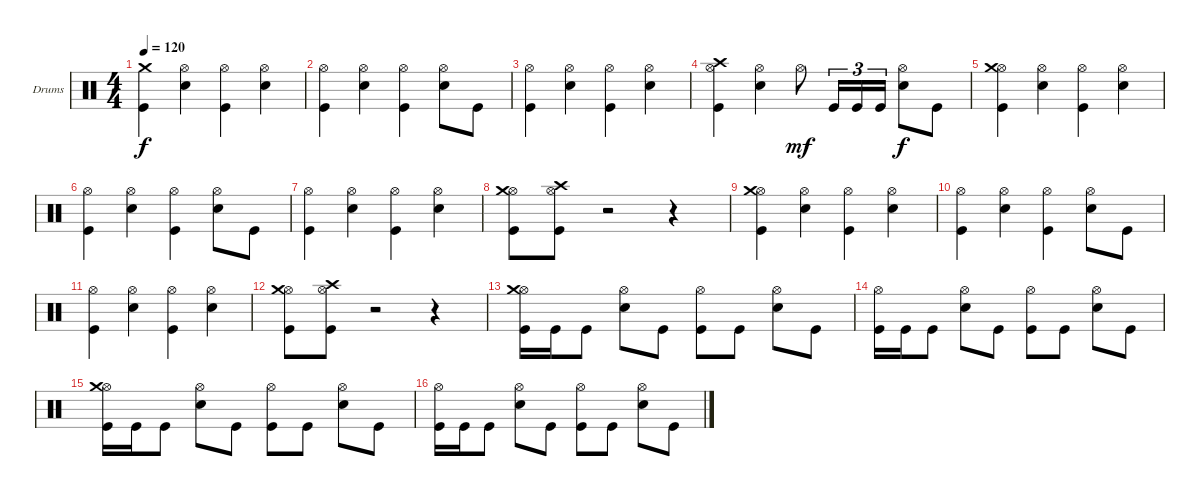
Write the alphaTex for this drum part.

\defaultSystemsLayout 4
\bracketExtendMode groupsimilarinstruments
\firstSystemTrackNameOrientation horizontal
\otherSystemsTrackNameOrientation horizontal
\track ("Drumkit" "Drums") {instrument percussion}
\staff {score}
\articulation defaults
\ts (4 4)
\tempo 120
\clef neutral
\scale
0.474178
\ks c
("Kick (hit)" "Crash medium (hit)").4{dy f} ("Snare (hit) 2" "Hi-Hat (open)").4 ("Kick (hit)" "Hi-Hat (open)").4 ("Snare (hit) 2" "Hi-Hat (open)").4 |
\scale
0.262911 ("Kick (hit)" "Hi-Hat (open)").4 ("Snare (hit) 2" "Hi-Hat (open)").4 ("Kick (hit)" "Hi-Hat (open)").4 ("Snare (hit) 2" "Hi-Hat (open)").8 "Kick (hit)".8 |
\scale
0.262911 ("Kick (hit)" "Hi-Hat (open)").4 ("Snare (hit) 2" "Hi-Hat (open)").4 ("Kick (hit)" "Hi-Hat (open)").4 ("Snare (hit) 2" "Hi-Hat (open)").4 |
\scale
0.333333 ("Kick (hit)" "Hi-Hat (open)" "Crash high (hit)").4 ("Snare (hit) 2" "Hi-Hat (open)").4 "Hi-Hat (open)".8{dy mf} "Kick (hit)".16{tu (3 2)} "Kick (hit)".16{tu (3 2)} "Kick (hit)".16{tu (3 2)} ("Snare (hit) 2" "Hi-Hat (open)").8{dy f} "Kick (hit)".8 |
\scale
0.333333 ("Kick (hit)" "Hi-Hat (open)" "Crash medium (hit)").4 ("Snare (hit) 2" "Hi-Hat (open)").4 ("Kick (hit)" "Hi-Hat (open)").4 ("Snare (hit) 2" "Hi-Hat (open)").4 |
\scale
0.333333 ("Kick (hit)" "Hi-Hat (open)").4 ("Snare (hit) 2" "Hi-Hat (open)").4 ("Kick (hit)" "Hi-Hat (open)").4 ("Snare (hit) 2" "Hi-Hat (open)").8 "Kick (hit)".8 |
\scale
0.333333 ("Kick (hit)" "Hi-Hat (open)").4 ("Snare (hit) 2" "Hi-Hat (open)").4 ("Kick (hit)" "Hi-Hat (open)").4 ("Snare (hit) 2" "Hi-Hat (open)").4 |
\scale
0.333333 ("Kick (hit)" "Hi-Hat (open)" "Crash medium (hit)").8 ("Kick (hit)" "Hi-Hat (open)" "Crash high (hit)").8 r.2 r.4 |
\scale
0.333333 ("Kick (hit)" "Hi-Hat (open)" "Crash medium (hit)").4 ("Snare (hit) 2" "Hi-Hat (open)").4 ("Kick (hit)" "Hi-Hat (open)").4 ("Snare (hit) 2" "Hi-Hat (open)").4 |
("Kick (hit)" "Hi-Hat (open)").4 ("Snare (hit) 2" "Hi-Hat (open)").4 ("Kick (hit)" "Hi-Hat (open)").4 ("Snare (hit) 2" "Hi-Hat (open)").8 "Kick (hit)".8 |
("Kick (hit)" "Hi-Hat (open)").4 ("Snare (hit) 2" "Hi-Hat (open)").4 ("Kick (hit)" "Hi-Hat (open)").4 ("Snare (hit) 2" "Hi-Hat (open)").4 |
("Kick (hit)" "Hi-Hat (open)" "Crash medium (hit)").8 ("Kick (hit)" "Hi-Hat (open)" "Crash high (hit)").8 r.2 r.4 |
("Kick (hit)" "Hi-Hat (open)" "Crash medium (hit)").16 "Kick (hit)".16 "Kick (hit)".8 ("Snare (hit) 2" "Hi-Hat (open)").8 "Kick (hit)".8 ("Kick (hit)" "Hi-Hat (open)").8 "Kick (hit)".8 ("Snare (hit) 2" "Hi-Hat (open)").8 "Kick (hit)".8 |
("Kick (hit)" "Hi-Hat (open)").16 "Kick (hit)".16 "Kick (hit)".8 ("Snare (hit) 2" "Hi-Hat (open)").8 "Kick (hit)".8 ("Kick (hit)" "Hi-Hat (open)").8 "Kick (hit)".8 ("Snare (hit) 2" "Hi-Hat (open)").8 "Kick (hit)".8 |
("Kick (hit)" "Hi-Hat (open)" "Crash medium (hit)").16 "Kick (hit)".16 "Kick (hit)".8 ("Snare (hit) 2" "Hi-Hat (open)").8 "Kick (hit)".8 ("Kick (hit)" "Hi-Hat (open)").8 "Kick (hit)".8 ("Snare (hit) 2" "Hi-Hat (open)").8 "Kick (hit)".8 |
("Kick (hit)" "Hi-Hat (open)").16 "Kick (hit)".16 "Kick (hit)".8 ("Snare (hit) 2" "Hi-Hat (open)").8 "Kick (hit)".8 ("Kick (hit)" "Hi-Hat (open)").8 "Kick (hit)".8 ("Snare (hit) 2" "Hi-Hat (open)").8 "Kick (hit)".8
